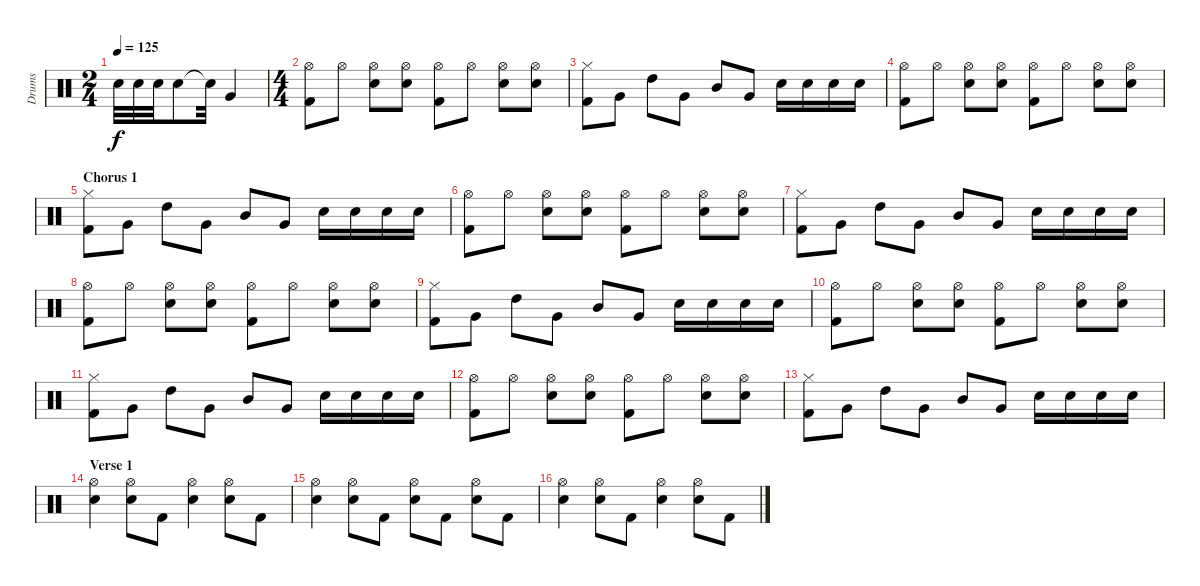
\track ("Drums" "Drums") {instrument percussion}
\staff {score}
\articulation defaults
\ts (2 4)
\tempo 125
\clef neutral
\ks c "Electric Snare (hit)".32{dy f} "Electric Snare (hit)".32 "Electric Snare (hit)".32 "Electric Snare (hit)".8 "Snare (hit)"{t}.32 "Very Low Tom (hit)".4
|
\ts (4 4)
("Hi-Hat (open)" "Kick (hit) 2").8 "Hi-Hat (open)".8 ("Hi-Hat (open)" "Electric Snare (hit)").8 ("Hi-Hat (open)" "Electric Snare (hit)").8 ("Hi-Hat (open)" "Kick (hit) 2").8 "Hi-Hat (open)".8 ("Hi-Hat (open)" "Electric Snare (hit)").8 ("Hi-Hat (open)" "Electric Snare (hit)").8 |
("Hi-Hat (closed)" "Kick (hit) 2").8 "Very Low Tom (hit)".8 "High Tom (hit)".8 "Very Low Tom (hit)".8 "Mid Tom (hit)".8 "Very Low Tom (hit)".8 "Electric Snare (hit)".16 "Electric Snare (hit)".16 "Electric Snare (hit)".16 "Electric Snare (hit)".16 |
("Hi-Hat (open)" "Kick (hit) 2").8 "Hi-Hat (open)".8 ("Hi-Hat (open)" "Electric Snare (hit)").8 ("Hi-Hat (open)" "Electric Snare (hit)").8 ("Hi-Hat (open)" "Kick (hit) 2").8 "Hi-Hat (open)".8 ("Hi-Hat (open)" "Electric Snare (hit)").8 ("Hi-Hat (open)" "Electric Snare (hit)").8 |
\section ("" "Chorus 1")
("Hi-Hat (closed)" "Kick (hit) 2").8 "Very Low Tom (hit)".8 "High Tom (hit)".8 "Very Low Tom (hit)".8 "Mid Tom (hit)".8 "Very Low Tom (hit)".8 "Electric Snare (hit)".16 "Electric Snare (hit)".16 "Electric Snare (hit)".16 "Electric Snare (hit)".16 |
("Hi-Hat (open)" "Kick (hit) 2").8 "Hi-Hat (open)".8 ("Hi-Hat (open)" "Electric Snare (hit)").8 ("Hi-Hat (open)" "Electric Snare (hit)").8 ("Hi-Hat (open)" "Kick (hit) 2").8 "Hi-Hat (open)".8 ("Hi-Hat (open)" "Electric Snare (hit)").8 ("Hi-Hat (open)" "Electric Snare (hit)").8 |
("Hi-Hat (closed)" "Kick (hit) 2").8 "Very Low Tom (hit)".8 "High Tom (hit)".8 "Very Low Tom (hit)".8 "Mid Tom (hit)".8 "Very Low Tom (hit)".8 "Electric Snare (hit)".16 "Electric Snare (hit)".16 "Electric Snare (hit)".16 "Electric Snare (hit)".16 |
("Hi-Hat (open)" "Kick (hit) 2").8 "Hi-Hat (open)".8 ("Hi-Hat (open)" "Electric Snare (hit)").8 ("Hi-Hat (open)" "Electric Snare (hit)").8 ("Hi-Hat (open)" "Kick (hit) 2").8 "Hi-Hat (open)".8 ("Hi-Hat (open)" "Electric Snare (hit)").8 ("Hi-Hat (open)" "Electric Snare (hit)").8 |
("Hi-Hat (closed)" "Kick (hit) 2").8 "Very Low Tom (hit)".8 "High Tom (hit)".8 "Very Low Tom (hit)".8 "Mid Tom (hit)".8 "Very Low Tom (hit)".8 "Electric Snare (hit)".16 "Electric Snare (hit)".16 "Electric Snare (hit)".16 "Electric Snare (hit)".16 |
("Hi-Hat (open)" "Kick (hit) 2").8 "Hi-Hat (open)".8 ("Hi-Hat (open)" "Electric Snare (hit)").8 ("Hi-Hat (open)" "Electric Snare (hit)").8 ("Hi-Hat (open)" "Kick (hit) 2").8 "Hi-Hat (open)".8 ("Hi-Hat (open)" "Electric Snare (hit)").8 ("Hi-Hat (open)" "Electric Snare (hit)").8 |
("Hi-Hat (closed)" "Kick (hit) 2").8 "Very Low Tom (hit)".8 "High Tom (hit)".8 "Very Low Tom (hit)".8 "Mid Tom (hit)".8 "Very Low Tom (hit)".8 "Electric Snare (hit)".16 "Electric Snare (hit)".16 "Electric Snare (hit)".16 "Electric Snare (hit)".16 |
("Hi-Hat (open)" "Kick (hit) 2").8 "Hi-Hat (open)".8 ("Hi-Hat (open)" "Electric Snare (hit)").8 ("Hi-Hat (open)" "Electric Snare (hit)").8 ("Hi-Hat (open)" "Kick (hit) 2").8 "Hi-Hat (open)".8 ("Hi-Hat (open)" "Electric Snare (hit)").8 ("Hi-Hat (open)" "Electric Snare (hit)").8 |
("Hi-Hat (closed)" "Kick (hit) 2").8 "Very Low Tom (hit)".8 "High Tom (hit)".8 "Very Low Tom (hit)".8 "Mid Tom (hit)".8 "Very Low Tom (hit)".8 "Electric Snare (hit)".16 "Electric Snare (hit)".16 "Electric Snare (hit)".16 "Electric Snare (hit)".16 |
\section ("" "Verse 1")
("Hi-Hat (open)" "Electric Snare (hit)").4 ("Hi-Hat (open)" "Electric Snare (hit)").8 "Kick (hit) 2".8 ("Hi-Hat (open)" "Electric Snare (hit)").4 ("Hi-Hat (open)" "Electric Snare (hit)").8 "Kick (hit) 2".8 |
("Hi-Hat (open)" "Electric Snare (hit)").4 ("Hi-Hat (open)" "Electric Snare (hit)").8 "Kick (hit) 2".8 ("Hi-Hat (open)" "Electric Snare (hit)").8 "Kick (hit) 2".8 ("Hi-Hat (open)" "Electric Snare (hit)").8 "Kick (hit) 2".8 |
("Hi-Hat (open)" "Electric Snare (hit)").4 ("Hi-Hat (open)" "Electric Snare (hit)").8 "Kick (hit) 2".8 ("Hi-Hat (open)" "Electric Snare (hit)").4 ("Hi-Hat (open)" "Electric Snare (hit)").8 "Kick (hit) 2".8
